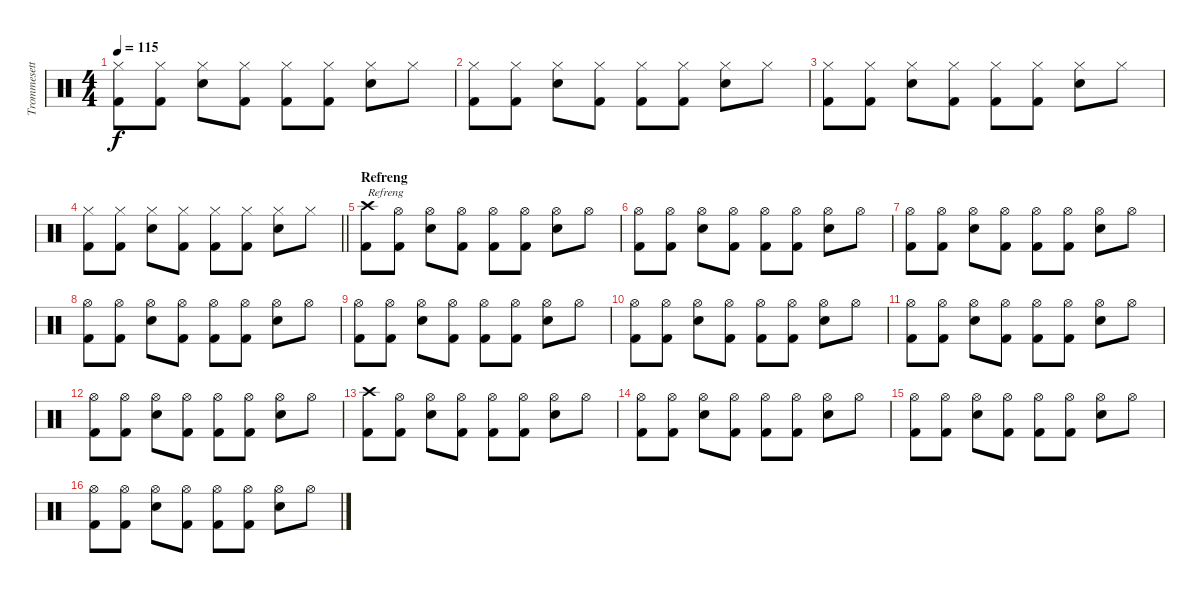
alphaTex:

\track ("Trommesett" "Trommesett") {instrument percussion}
\staff {score}
\articulation defaults
\ts (4 4)
\tempo 115
\clef neutral
\ks c
("Hi-Hat (closed)" "Kick (hit) 2").8{dy f} ("Hi-Hat (closed)" "Kick (hit) 2").8 ("Hi-Hat (closed)" "Electric Snare (hit)").8 ("Hi-Hat (closed)" "Kick (hit) 2").8 ("Hi-Hat (closed)" "Kick (hit) 2").8 ("Hi-Hat (closed)" "Kick (hit) 2").8 ("Hi-Hat (closed)" "Electric Snare (hit)").8 "Hi-Hat (closed)".8 |
("Hi-Hat (closed)" "Kick (hit) 2").8 ("Hi-Hat (closed)" "Kick (hit) 2").8 ("Hi-Hat (closed)" "Electric Snare (hit)").8 ("Hi-Hat (closed)" "Kick (hit) 2").8 ("Hi-Hat (closed)" "Kick (hit) 2").8 ("Hi-Hat (closed)" "Kick (hit) 2").8 ("Hi-Hat (closed)" "Electric Snare (hit)").8 "Hi-Hat (closed)".8 |
("Hi-Hat (closed)" "Kick (hit) 2").8 ("Hi-Hat (closed)" "Kick (hit) 2").8 ("Hi-Hat (closed)" "Electric Snare (hit)").8 ("Hi-Hat (closed)" "Kick (hit) 2").8 ("Hi-Hat (closed)" "Kick (hit) 2").8 ("Hi-Hat (closed)" "Kick (hit) 2").8 ("Hi-Hat (closed)" "Electric Snare (hit)").8 "Hi-Hat (closed)".8 |
\barLineRight lightlight
("Hi-Hat (closed)" "Kick (hit) 2").8 ("Hi-Hat (closed)" "Kick (hit) 2").8 ("Hi-Hat (closed)" "Electric Snare (hit)").8 ("Hi-Hat (closed)" "Kick (hit) 2").8 ("Hi-Hat (closed)" "Kick (hit) 2").8 ("Hi-Hat (closed)" "Kick (hit) 2").8 ("Hi-Hat (closed)" "Electric Snare (hit)").8 "Hi-Hat (closed)".8 |
\section ("" "Refreng")
("Crash high (hit)" "Kick (hit) 2").8{txt "Refreng"} ("Hi-Hat (open)" "Kick (hit) 2").8 ("Hi-Hat (open)" "Electric Snare (hit)").8 ("Hi-Hat (open)" "Kick (hit) 2").8 ("Hi-Hat (open)" "Kick (hit) 2").8 ("Hi-Hat (open)" "Kick (hit) 2").8 ("Hi-Hat (open)" "Electric Snare (hit)").8 "Hi-Hat (open)".8 |
("Hi-Hat (open)" "Kick (hit) 2").8 ("Hi-Hat (open)" "Kick (hit) 2").8 ("Hi-Hat (open)" "Electric Snare (hit)").8 ("Hi-Hat (open)" "Kick (hit) 2").8 ("Hi-Hat (open)" "Kick (hit) 2").8 ("Hi-Hat (open)" "Kick (hit) 2").8 ("Hi-Hat (open)" "Electric Snare (hit)").8 "Hi-Hat (open)".8 |
("Hi-Hat (open)" "Kick (hit) 2").8 ("Hi-Hat (open)" "Kick (hit) 2").8 ("Hi-Hat (open)" "Electric Snare (hit)").8 ("Hi-Hat (open)" "Kick (hit) 2").8 ("Hi-Hat (open)" "Kick (hit) 2").8 ("Hi-Hat (open)" "Kick (hit) 2").8 ("Hi-Hat (open)" "Electric Snare (hit)").8 "Hi-Hat (open)".8 |
("Hi-Hat (open)" "Kick (hit) 2").8 ("Hi-Hat (open)" "Kick (hit) 2").8 ("Hi-Hat (open)" "Electric Snare (hit)").8 ("Hi-Hat (open)" "Kick (hit) 2").8 ("Hi-Hat (open)" "Kick (hit) 2").8 ("Hi-Hat (open)" "Kick (hit) 2").8 ("Hi-Hat (open)" "Electric Snare (hit)").8 "Hi-Hat (open)".8 |
("Hi-Hat (open)" "Kick (hit) 2").8 ("Hi-Hat (open)" "Kick (hit) 2").8 ("Hi-Hat (open)" "Electric Snare (hit)").8 ("Hi-Hat (open)" "Kick (hit) 2").8 ("Hi-Hat (open)" "Kick (hit) 2").8 ("Hi-Hat (open)" "Kick (hit) 2").8 ("Hi-Hat (open)" "Electric Snare (hit)").8 "Hi-Hat (open)".8 |
("Hi-Hat (open)" "Kick (hit) 2").8 ("Hi-Hat (open)" "Kick (hit) 2").8 ("Hi-Hat (open)" "Electric Snare (hit)").8 ("Hi-Hat (open)" "Kick (hit) 2").8 ("Hi-Hat (open)" "Kick (hit) 2").8 ("Hi-Hat (open)" "Kick (hit) 2").8 ("Hi-Hat (open)" "Electric Snare (hit)").8 "Hi-Hat (open)".8 |
("Hi-Hat (open)" "Kick (hit) 2").8 ("Hi-Hat (open)" "Kick (hit) 2").8 ("Hi-Hat (open)" "Electric Snare (hit)").8 ("Hi-Hat (open)" "Kick (hit) 2").8 ("Hi-Hat (open)" "Kick (hit) 2").8 ("Hi-Hat (open)" "Kick (hit) 2").8 ("Hi-Hat (open)" "Electric Snare (hit)").8 "Hi-Hat (open)".8 |
("Hi-Hat (open)" "Kick (hit) 2").8 ("Hi-Hat (open)" "Kick (hit) 2").8 ("Hi-Hat (open)" "Electric Snare (hit)").8 ("Hi-Hat (open)" "Kick (hit) 2").8 ("Hi-Hat (open)" "Kick (hit) 2").8 ("Hi-Hat (open)" "Kick (hit) 2").8 ("Hi-Hat (open)" "Electric Snare (hit)").8 "Hi-Hat (open)".8 |
("Crash high (hit)" "Kick (hit) 2").8 ("Hi-Hat (open)" "Kick (hit) 2").8 ("Hi-Hat (open)" "Electric Snare (hit)").8 ("Hi-Hat (open)" "Kick (hit) 2").8 ("Hi-Hat (open)" "Kick (hit) 2").8 ("Hi-Hat (open)" "Kick (hit) 2").8 ("Hi-Hat (open)" "Electric Snare (hit)").8 "Hi-Hat (open)".8 |
("Hi-Hat (open)" "Kick (hit) 2").8 ("Hi-Hat (open)" "Kick (hit) 2").8 ("Hi-Hat (open)" "Electric Snare (hit)").8 ("Hi-Hat (open)" "Kick (hit) 2").8 ("Hi-Hat (open)" "Kick (hit) 2").8 ("Hi-Hat (open)" "Kick (hit) 2").8 ("Hi-Hat (open)" "Electric Snare (hit)").8 "Hi-Hat (open)".8 |
("Hi-Hat (open)" "Kick (hit) 2").8 ("Hi-Hat (open)" "Kick (hit) 2").8 ("Hi-Hat (open)" "Electric Snare (hit)").8 ("Hi-Hat (open)" "Kick (hit) 2").8 ("Hi-Hat (open)" "Kick (hit) 2").8 ("Hi-Hat (open)" "Kick (hit) 2").8 ("Hi-Hat (open)" "Electric Snare (hit)").8 "Hi-Hat (open)".8 |
("Hi-Hat (open)" "Kick (hit) 2").8 ("Hi-Hat (open)" "Kick (hit) 2").8 ("Hi-Hat (open)" "Electric Snare (hit)").8 ("Hi-Hat (open)" "Kick (hit) 2").8 ("Hi-Hat (open)" "Kick (hit) 2").8 ("Hi-Hat (open)" "Kick (hit) 2").8 ("Hi-Hat (open)" "Electric Snare (hit)").8 "Hi-Hat (open)".8
